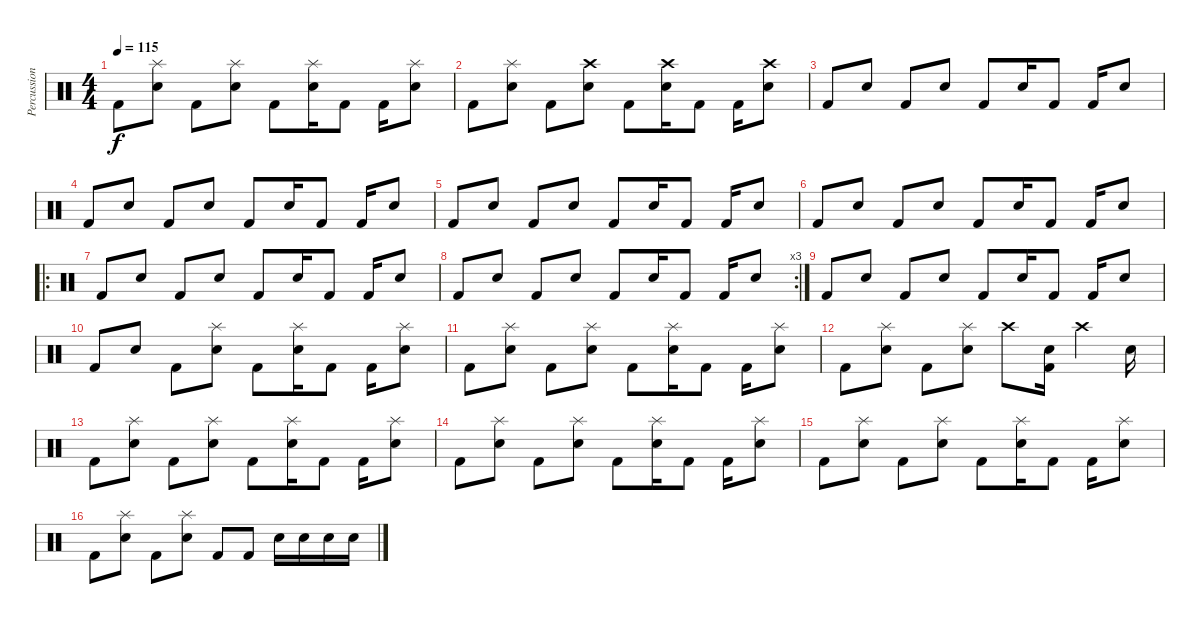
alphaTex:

\track ("Percussion" "Percussion") {instrument percussion}
\staff {score}
\articulation defaults
\ts (4 4)
\tempo 115
\clef neutral
\ks c "Kick (hit) 2".8{dy f}
("Splash (hit)" "Snare (hit) 2").8 "Kick (hit) 2".8 ("Splash (hit)" "Snare (hit) 2").8 "Kick (hit) 2".8 ("Splash (hit)" "Snare (hit) 2").16 "Kick (hit) 2".8 "Kick (hit) 2".16 ("Splash (hit)" "Snare (hit) 2").8 |
"Kick (hit) 2".8 ("Splash (hit)" "Snare (hit) 2").8 "Kick (hit) 2".8 ("Crash high (hit)" "Snare (hit) 2").8 "Kick (hit) 2".8 ("Crash high (hit)" "Snare (hit) 2").16 "Kick (hit) 2".8 "Kick (hit) 2".16 ("Crash high (hit)" "Snare (hit) 2").8 |
"Kick (hit) 2".8 "Snare (hit) 2".8 "Kick (hit) 2".8 "Snare (hit) 2".8 "Kick (hit) 2".8 "Snare (hit) 2".16 "Kick (hit) 2".8 "Kick (hit) 2".16 "Snare (hit) 2".8 |
"Kick (hit) 2".8 "Snare (hit) 2".8 "Kick (hit) 2".8 "Snare (hit) 2".8 "Kick (hit) 2".8 "Snare (hit) 2".16 "Kick (hit) 2".8 "Kick (hit) 2".16 "Snare (hit) 2".8 |
"Kick (hit) 2".8 "Snare (hit) 2".8 "Kick (hit) 2".8 "Snare (hit) 2".8 "Kick (hit) 2".8 "Snare (hit) 2".16 "Kick (hit) 2".8 "Kick (hit) 2".16 "Snare (hit) 2".8 |
"Kick (hit) 2".8 "Snare (hit) 2".8 "Kick (hit) 2".8 "Snare (hit) 2".8 "Kick (hit) 2".8 "Snare (hit) 2".16 "Kick (hit) 2".8 "Kick (hit) 2".16 "Snare (hit) 2".8 |
\ro "Kick (hit) 2".8 "Snare (hit) 2".8 "Kick (hit) 2".8 "Snare (hit) 2".8 "Kick (hit) 2".8 "Snare (hit) 2".16 "Kick (hit) 2".8 "Kick (hit) 2".16 "Snare (hit) 2".8
|
\rc 3 "Kick (hit) 2".8 "Snare (hit) 2".8 "Kick (hit) 2".8 "Snare (hit) 2".8 "Kick (hit) 2".8 "Snare (hit) 2".16 "Kick (hit) 2".8 "Kick (hit) 2".16 "Snare (hit) 2".8
|
"Kick (hit) 2".8 "Snare (hit) 2".8 "Kick (hit) 2".8 "Snare (hit) 2".8 "Kick (hit) 2".8 "Snare (hit) 2".16 "Kick (hit) 2".8 "Kick (hit) 2".16 "Snare (hit) 2".8 |
"Kick (hit) 2".8 "Snare (hit) 2".8 "Kick (hit) 2".8 ("Splash (hit)" "Snare (hit) 2").8 "Kick (hit) 2".8 ("Splash (hit)" "Snare (hit) 2").16 "Kick (hit) 2".8 "Kick (hit) 2".16 ("Splash (hit)" "Snare (hit) 2").8 |
"Kick (hit) 2".8 ("Splash (hit)" "Snare (hit) 2").8 "Kick (hit) 2".8 ("Splash (hit)" "Snare (hit) 2").8 "Kick (hit) 2".8 ("Splash (hit)" "Snare (hit) 2").16 "Kick (hit) 2".8 "Kick (hit) 2".16 ("Splash (hit)" "Snare (hit) 2").8 |
"Kick (hit) 2".8 ("Splash (hit)" "Snare (hit) 2").8 "Kick (hit) 2".8 ("Splash (hit)" "Snare (hit) 2").8 "Crash high (hit)".8 ("Snare (hit) 2" "Kick (hit) 2").16 "Crash high (hit)".4 "Snare (hit) 2".16 |
"Kick (hit) 2".8 ("Splash (hit)" "Snare (hit) 2").8 "Kick (hit) 2".8 ("Splash (hit)" "Snare (hit) 2").8 "Kick (hit) 2".8 ("Splash (hit)" "Snare (hit) 2").16 "Kick (hit) 2".8 "Kick (hit) 2".16 ("Splash (hit)" "Snare (hit) 2").8 |
"Kick (hit) 2".8 ("Splash (hit)" "Snare (hit) 2").8 "Kick (hit) 2".8 ("Splash (hit)" "Snare (hit) 2").8 "Kick (hit) 2".8 ("Splash (hit)" "Snare (hit) 2").16 "Kick (hit) 2".8 "Kick (hit) 2".16 ("Splash (hit)" "Snare (hit) 2").8 |
"Kick (hit) 2".8 ("Splash (hit)" "Snare (hit) 2").8 "Kick (hit) 2".8 ("Splash (hit)" "Snare (hit) 2").8 "Kick (hit) 2".8 ("Splash (hit)" "Snare (hit) 2").16 "Kick (hit) 2".8 "Kick (hit) 2".16 ("Splash (hit)" "Snare (hit) 2").8 |
"Kick (hit) 2".8 ("Splash (hit)" "Snare (hit) 2").8 "Kick (hit) 2".8 ("Splash (hit)" "Snare (hit) 2").8 "Kick (hit) 2".8 "Kick (hit) 2".8 "Snare (hit) 2".16 "Snare (hit) 2".16 "Snare (hit) 2".16 "Snare (hit) 2".16
